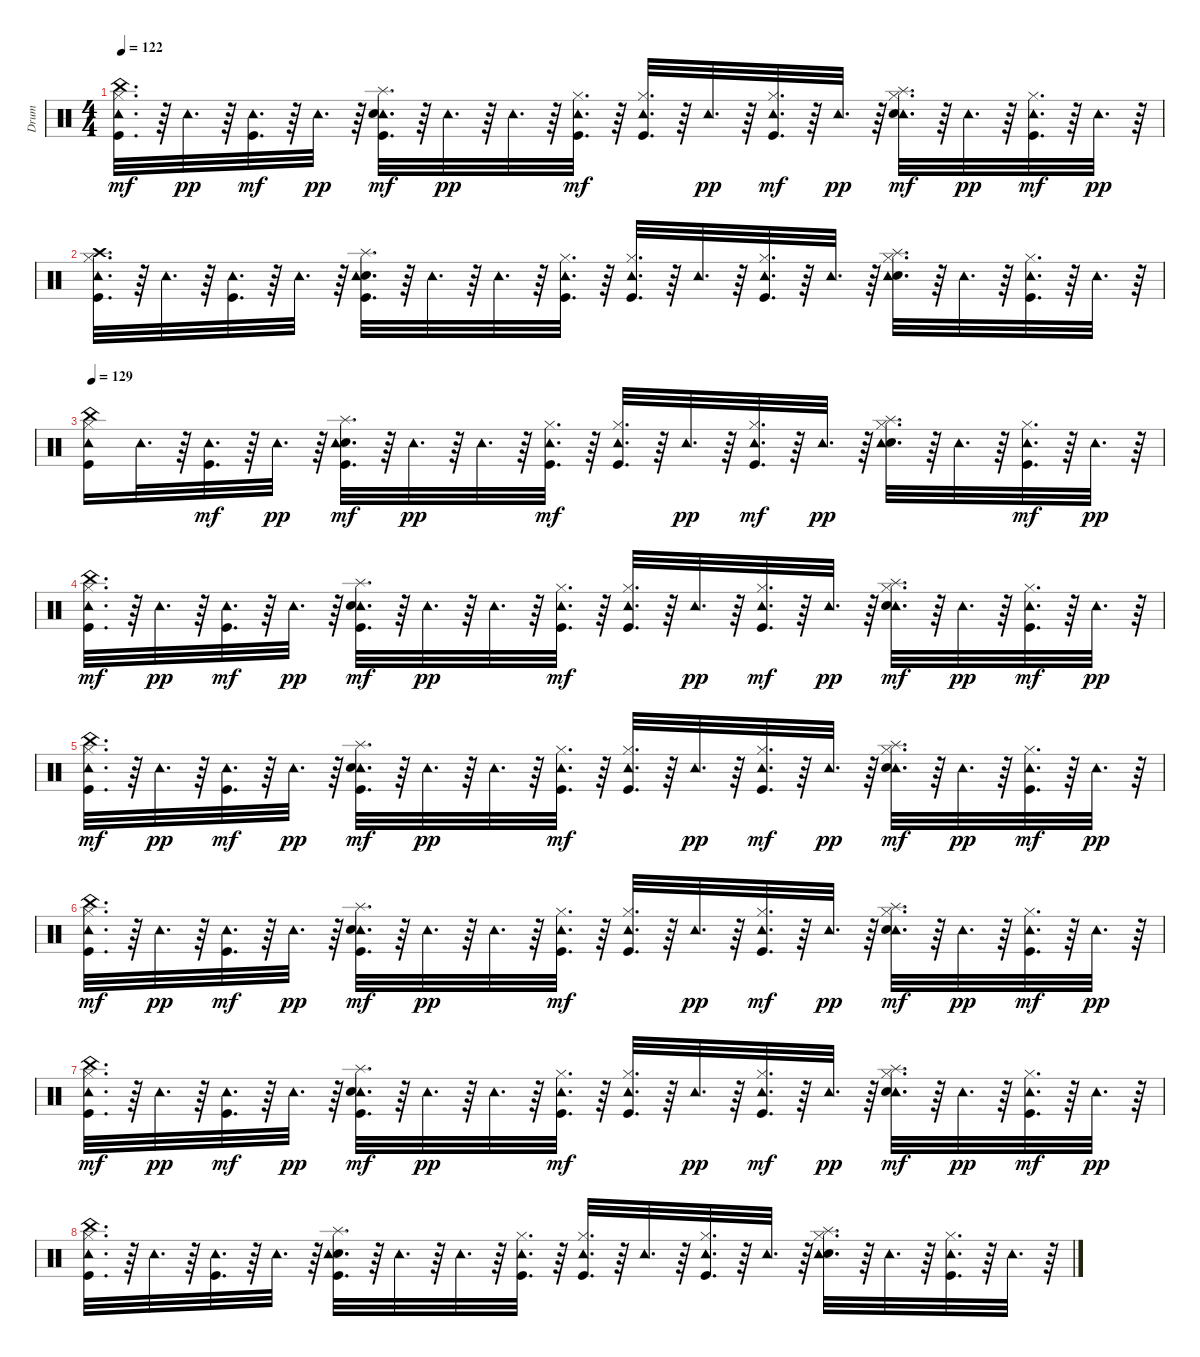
\track ("Drum" "Drum") {instrument percussion}
\staff {score}
\articulation defaults
\ts (4 4)
\tempo 122
\clef neutral
\ks c
("China (hit)" "Tambourine (hit)" "Hi-Hat (closed)" "Kick (hit)").32{d dy mf} r.64 "Tambourine (hit)".32{d dy pp} r.64 ("Tambourine (hit)" "Kick (hit)").32{d dy mf} r.64 "Tambourine (hit)".32{d dy pp} r.64 ("Tambourine (hit)" "Kick (hit)" "Snare (hit) 2" "Splash (hit)").32{d dy mf} r.64 "Tambourine (hit)".32{d dy pp} r.64 "Tambourine (hit)".32{d} r.64 ("Tambourine (hit)" "Hi-Hat (closed)" "Kick (hit)").32{d dy mf} r.64 ("Tambourine (hit)" "Hi-Hat (closed)" "Kick (hit)").32{d} r.64 "Tambourine (hit)".32{d dy pp} r.64 ("Tambourine (hit)" "Hi-Hat (closed)" "Kick (hit)").32{d dy mf} r.64 "Tambourine (hit)".32{d dy pp} r.64 ("Tambourine (hit)" "Hi-Hat (closed)" "Snare (hit) 2" "Splash (hit)").32{d dy mf} r.64 "Tambourine (hit)".32{d dy pp} r.64 ("Tambourine (hit)" "Hi-Hat (closed)" "Kick (hit)").32{d dy mf} r.64 "Tambourine (hit)".32{d dy pp} r.64 |
("Crash high (hit)" "Kick (hit)" "Hi-Hat (closed)" "Tambourine (hit)").32{d} r.64 "Tambourine (hit)".32{d} r.64 ("Kick (hit)" "Tambourine (hit)").32{d} r.64 "Tambourine (hit)".32{d} r.64 ("Splash (hit)" "Snare (hit) 2" "Kick (hit)" "Tambourine (hit)").32{d} r.64 "Tambourine (hit)".32{d} r.64 "Tambourine (hit)".32{d} r.64 ("Kick (hit)" "Hi-Hat (closed)" "Tambourine (hit)").32{d} r.64 ("Kick (hit)" "Hi-Hat (closed)" "Tambourine (hit)").32{d} r.64 "Tambourine (hit)".32{d} r.64 ("Kick (hit)" "Hi-Hat (closed)" "Tambourine (hit)").32{d} r.64 "Tambourine (hit)".32{d} r.64 ("Splash (hit)" "Snare (hit) 2" "Hi-Hat (closed)" "Tambourine (hit)").32{d} r.64 "Tambourine (hit)".32{d} r.64 ("Kick (hit)" "Hi-Hat (closed)" "Tambourine (hit)").32{d} r.64 "Tambourine (hit)".32{d} r.64 |
\tempo 129
("Kick (hit)" "China (hit)" "Hi-Hat (closed)" "Tambourine (hit)").16 "Tambourine (hit)".32{d} r.64 ("Tambourine (hit)" "Kick (hit)").32{d dy mf} r.64 "Tambourine (hit)".32{d dy pp} r.64 ("Splash (hit)" "Snare (hit) 2" "Tambourine (hit)" "Kick (hit)").32{d dy mf} r.64 "Tambourine (hit)".32{d dy pp} r.64 "Tambourine (hit)".32{d} r.64 ("Kick (hit)" "Tambourine (hit)" "Hi-Hat (closed)").32{d dy mf} r.64 ("Tambourine (hit)" "Hi-Hat (closed)" "Kick (hit)").32{d} r.64 "Tambourine (hit)".32{d dy pp} r.64 ("Tambourine (hit)" "Hi-Hat (closed)" "Kick (hit)").32{d dy mf} r.64 "Tambourine (hit)".32{d dy pp} r.64 ("Splash (hit)" "Snare (hit) 2" "Hi-Hat (closed)" "Tambourine (hit)").32{d} r.64 "Tambourine (hit)".32{d} r.64 ("Tambourine (hit)" "Hi-Hat (closed)" "Kick (hit)").32{d dy mf} r.64 "Tambourine (hit)".32{d dy pp} r.64 |
("China (hit)" "Tambourine (hit)" "Hi-Hat (closed)" "Kick (hit)").32{d dy mf} r.64 "Tambourine (hit)".32{d dy pp} r.64 ("Tambourine (hit)" "Kick (hit)").32{d dy mf} r.64 "Tambourine (hit)".32{d dy pp} r.64 ("Tambourine (hit)" "Kick (hit)" "Snare (hit) 2" "Splash (hit)").32{d dy mf} r.64 "Tambourine (hit)".32{d dy pp} r.64 "Tambourine (hit)".32{d} r.64 ("Tambourine (hit)" "Hi-Hat (closed)" "Kick (hit)").32{d dy mf} r.64 ("Tambourine (hit)" "Hi-Hat (closed)" "Kick (hit)").32{d} r.64 "Tambourine (hit)".32{d dy pp} r.64 ("Tambourine (hit)" "Hi-Hat (closed)" "Kick (hit)").32{d dy mf} r.64 "Tambourine (hit)".32{d dy pp} r.64 ("Tambourine (hit)" "Hi-Hat (closed)" "Snare (hit) 2" "Splash (hit)").32{d dy mf} r.64 "Tambourine (hit)".32{d dy pp} r.64 ("Tambourine (hit)" "Hi-Hat (closed)" "Kick (hit)").32{d dy mf} r.64 "Tambourine (hit)".32{d dy pp} r.64 |
("China (hit)" "Tambourine (hit)" "Hi-Hat (closed)" "Kick (hit)").32{d dy mf} r.64 "Tambourine (hit)".32{d dy pp} r.64 ("Tambourine (hit)" "Kick (hit)").32{d dy mf} r.64 "Tambourine (hit)".32{d dy pp} r.64 ("Tambourine (hit)" "Kick (hit)" "Snare (hit) 2" "Splash (hit)").32{d dy mf} r.64 "Tambourine (hit)".32{d dy pp} r.64 "Tambourine (hit)".32{d} r.64 ("Tambourine (hit)" "Hi-Hat (closed)" "Kick (hit)").32{d dy mf} r.64 ("Tambourine (hit)" "Hi-Hat (closed)" "Kick (hit)").32{d} r.64 "Tambourine (hit)".32{d dy pp} r.64 ("Tambourine (hit)" "Hi-Hat (closed)" "Kick (hit)").32{d dy mf} r.64 "Tambourine (hit)".32{d dy pp} r.64 ("Tambourine (hit)" "Hi-Hat (closed)" "Snare (hit) 2" "Splash (hit)").32{d dy mf} r.64 "Tambourine (hit)".32{d dy pp} r.64 ("Tambourine (hit)" "Hi-Hat (closed)" "Kick (hit)").32{d dy mf} r.64 "Tambourine (hit)".32{d dy pp} r.64 |
("China (hit)" "Tambourine (hit)" "Hi-Hat (closed)" "Kick (hit)").32{d dy mf} r.64 "Tambourine (hit)".32{d dy pp} r.64 ("Tambourine (hit)" "Kick (hit)").32{d dy mf} r.64 "Tambourine (hit)".32{d dy pp} r.64 ("Tambourine (hit)" "Kick (hit)" "Snare (hit) 2" "Splash (hit)").32{d dy mf} r.64 "Tambourine (hit)".32{d dy pp} r.64 "Tambourine (hit)".32{d} r.64 ("Tambourine (hit)" "Hi-Hat (closed)" "Kick (hit)").32{d dy mf} r.64 ("Tambourine (hit)" "Hi-Hat (closed)" "Kick (hit)").32{d} r.64 "Tambourine (hit)".32{d dy pp} r.64 ("Tambourine (hit)" "Hi-Hat (closed)" "Kick (hit)").32{d dy mf} r.64 "Tambourine (hit)".32{d dy pp} r.64 ("Tambourine (hit)" "Hi-Hat (closed)" "Snare (hit) 2" "Splash (hit)").32{d dy mf} r.64 "Tambourine (hit)".32{d dy pp} r.64 ("Tambourine (hit)" "Hi-Hat (closed)" "Kick (hit)").32{d dy mf} r.64 "Tambourine (hit)".32{d dy pp} r.64 |
("China (hit)" "Tambourine (hit)" "Hi-Hat (closed)" "Kick (hit)").32{d dy mf} r.64 "Tambourine (hit)".32{d dy pp} r.64 ("Tambourine (hit)" "Kick (hit)").32{d dy mf} r.64 "Tambourine (hit)".32{d dy pp} r.64 ("Tambourine (hit)" "Kick (hit)" "Snare (hit) 2" "Splash (hit)").32{d dy mf} r.64 "Tambourine (hit)".32{d dy pp} r.64 "Tambourine (hit)".32{d} r.64 ("Tambourine (hit)" "Hi-Hat (closed)" "Kick (hit)").32{d dy mf} r.64 ("Tambourine (hit)" "Hi-Hat (closed)" "Kick (hit)").32{d} r.64 "Tambourine (hit)".32{d dy pp} r.64 ("Tambourine (hit)" "Hi-Hat (closed)" "Kick (hit)").32{d dy mf} r.64 "Tambourine (hit)".32{d dy pp} r.64 ("Tambourine (hit)" "Hi-Hat (closed)" "Snare (hit) 2" "Splash (hit)").32{d dy mf} r.64 "Tambourine (hit)".32{d dy pp} r.64 ("Tambourine (hit)" "Hi-Hat (closed)" "Kick (hit)").32{d dy mf} r.64 "Tambourine (hit)".32{d dy pp} r.64 |
("China (hit)" "Kick (hit)" "Hi-Hat (closed)" "Tambourine (hit)").32{d} r.64 "Tambourine (hit)".32{d} r.64 ("Kick (hit)" "Tambourine (hit)").32{d} r.64 "Tambourine (hit)".32{d} r.64 ("Splash (hit)" "Snare (hit) 2" "Kick (hit)" "Tambourine (hit)").32{d} r.64 "Tambourine (hit)".32{d} r.64 "Tambourine (hit)".32{d} r.64 ("Kick (hit)" "Hi-Hat (closed)" "Tambourine (hit)").32{d} r.64 ("Kick (hit)" "Hi-Hat (closed)" "Tambourine (hit)").32{d} r.64 "Tambourine (hit)".32{d} r.64 ("Kick (hit)" "Hi-Hat (closed)" "Tambourine (hit)").32{d} r.64 "Tambourine (hit)".32{d} r.64 ("Splash (hit)" "Snare (hit) 2" "Hi-Hat (closed)" "Tambourine (hit)").32{d} r.64 "Tambourine (hit)".32{d} r.64 ("Kick (hit)" "Hi-Hat (closed)" "Tambourine (hit)").32{d} r.64 "Tambourine (hit)".32{d} r.64
